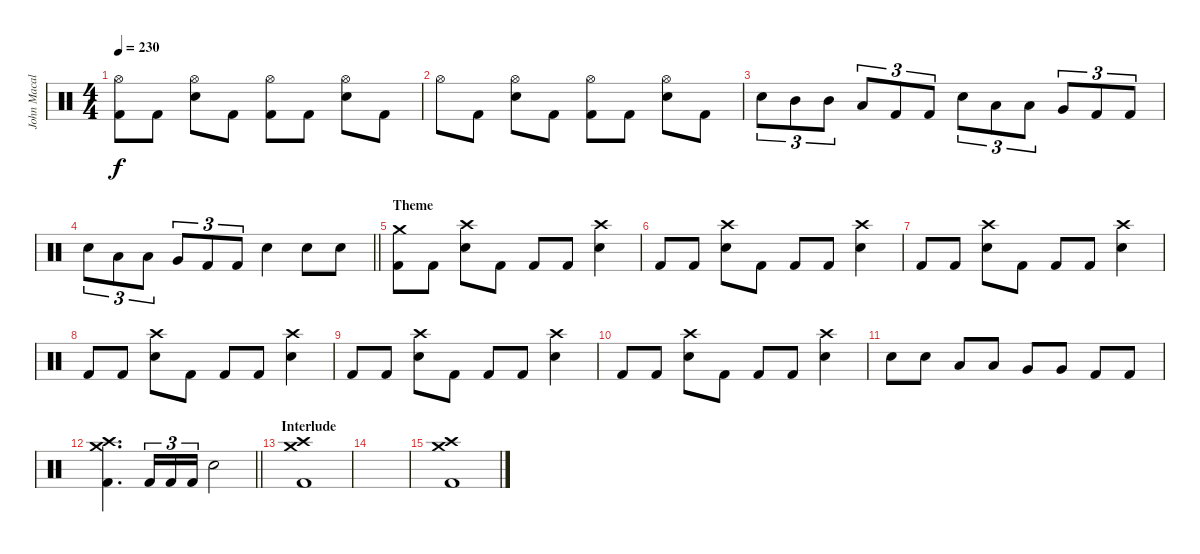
\track ("John Macaluso" "John Macal") {instrument percussion}
\staff {score}
\articulation defaults
\ts (4 4)
\tempo 230
\clef neutral
\ks c
("Hi-Hat (open)" "Kick (hit) 2").8{dy f} "Kick (hit) 2".8 ("Hi-Hat (open)" "Snare (hit) 2").8 "Kick (hit) 2".8 ("Hi-Hat (open)" "Kick (hit) 2").8 "Kick (hit) 2".8 ("Hi-Hat (open)" "Snare (hit) 2").8 "Kick (hit) 2".8 |
"Hi-Hat (open)".8 "Kick (hit) 2".8 ("Hi-Hat (open)" "Snare (hit) 2").8 "Kick (hit) 2".8 ("Hi-Hat (open)" "Kick (hit) 2").8 "Kick (hit) 2".8 ("Hi-Hat (open)" "Snare (hit) 2").8 "Kick (hit) 2".8 |
"Snare (hit) 2".8{tu (3 2)} "Mid Tom (hit)".8{tu (3 2)} "Mid Tom (hit)".8{tu (3 2)} "Low Tom (hit)".8{tu (3 2)} "Kick (hit) 2".8{tu (3 2)} "Kick (hit) 2".8{tu (3 2)} "Snare (hit) 2".8{tu (3 2)} "Low Tom (hit)".8{tu (3 2)} "Low Tom (hit)".8{tu (3 2)} "Very Low Tom (hit)".8{tu (3 2)} "Kick (hit) 2".8{tu (3 2)} "Kick (hit) 2".8{tu (3 2)} |
\barLineRight lightlight "Snare (hit) 2".8{tu (3 2)} "Low Tom (hit)".8{tu (3 2)} "Low Tom (hit)".8{tu (3 2)} "Very Low Tom (hit)".8{tu (3 2)} "Kick (hit) 2".8{tu (3 2)} "Kick (hit) 2".8{tu (3 2)} "Snare (hit) 2".4 "Snare (hit) 2".8 "Snare (hit) 2".8
|
\section ("" "Theme")
("Crash medium (hit)" "Kick (hit) 2").8 "Kick (hit) 2".8 ("Crash high (hit)" "Snare (hit) 2").8 "Kick (hit) 2".8 "Kick (hit) 2".8 "Kick (hit) 2".8 ("Crash high (hit)" "Snare (hit) 2").4 |
"Kick (hit) 2".8 "Kick (hit) 2".8 ("Crash high (hit)" "Snare (hit) 2").8 "Kick (hit) 2".8 "Kick (hit) 2".8 "Kick (hit) 2".8 ("Crash high (hit)" "Snare (hit) 2").4 |
"Kick (hit) 2".8 "Kick (hit) 2".8 ("Crash high (hit)" "Snare (hit) 2").8 "Kick (hit) 2".8 "Kick (hit) 2".8 "Kick (hit) 2".8 ("Crash high (hit)" "Snare (hit) 2").4 |
"Kick (hit) 2".8 "Kick (hit) 2".8 ("Crash high (hit)" "Snare (hit) 2").8 "Kick (hit) 2".8 "Kick (hit) 2".8 "Kick (hit) 2".8 ("Crash high (hit)" "Snare (hit) 2").4 |
"Kick (hit) 2".8 "Kick (hit) 2".8 ("Crash high (hit)" "Snare (hit) 2").8 "Kick (hit) 2".8 "Kick (hit) 2".8 "Kick (hit) 2".8 ("Crash high (hit)" "Snare (hit) 2").4 |
"Kick (hit) 2".8 "Kick (hit) 2".8 ("Crash high (hit)" "Snare (hit) 2").8 "Kick (hit) 2".8 "Kick (hit) 2".8 "Kick (hit) 2".8 ("Crash high (hit)" "Snare (hit) 2").4 |
"Snare (hit) 2".8 "Snare (hit) 2".8 "Low Tom (hit)".8 "Low Tom (hit)".8 "Very Low Tom (hit)".8 "Very Low Tom (hit)".8 "Kick (hit) 2".8 "Kick (hit) 2".8 |
\barLineRight lightlight
("Crash medium (hit)" "Crash high (hit)" "Kick (hit) 2").4{d} "Kick (hit) 2".16{tu (3 2)} "Kick (hit) 2".16{tu (3 2)} "Kick (hit) 2".16{tu (3 2)} "Snare (hit) 2".2 |
\section ("" "Interlude")
("Crash medium (hit)" "Crash high (hit)" "Kick (hit) 2").1 |
|
("Crash medium (hit)" "Crash high (hit)" "Kick (hit) 2").1
